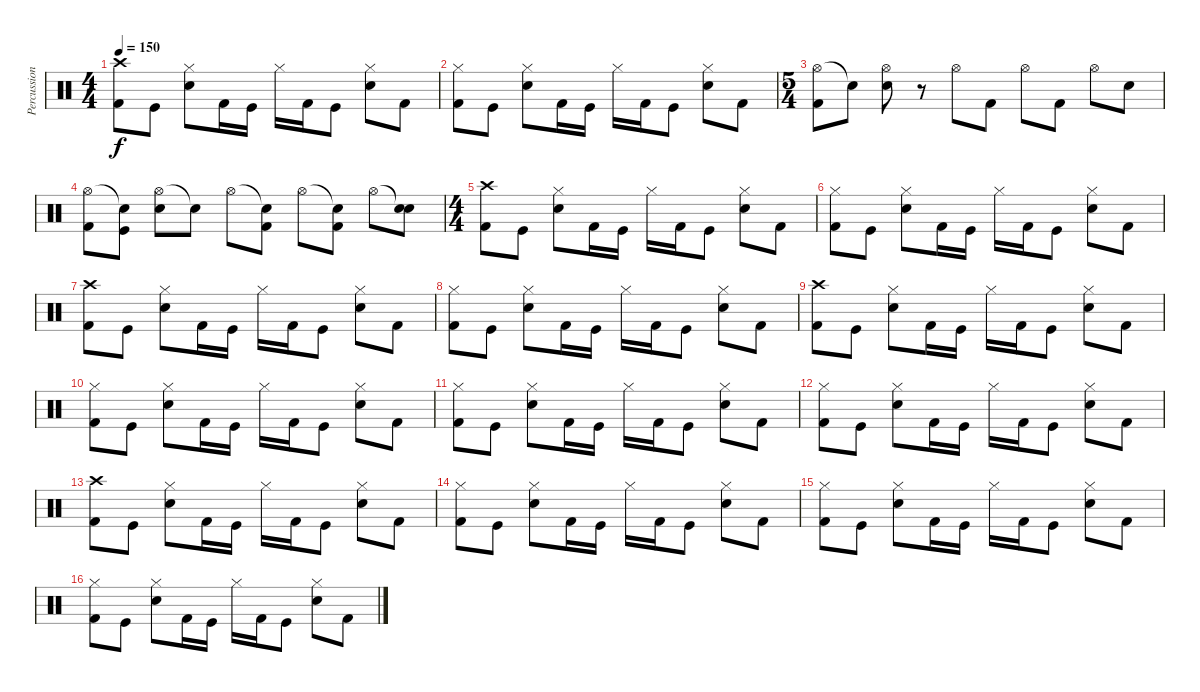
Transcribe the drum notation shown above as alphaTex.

\track ("Percussion" "Percussion") {instrument percussion}
\staff {score}
\articulation defaults
\ts (4 4)
\tempo 150
\clef neutral
\ks c
("Crash high (hit)" "Kick (hit) 2").8{dy f} "Kick (hit)".8 ("Hi-Hat (closed)" "Snare (hit) 2").8 "Kick (hit) 2".16 "Kick (hit)".16 "Hi-Hat (closed)".16 "Kick (hit) 2".16 "Kick (hit)".8 ("Hi-Hat (closed)" "Snare (hit) 2").8 "Kick (hit) 2".8 |
("Hi-Hat (closed)" "Kick (hit) 2").8 "Kick (hit)".8 ("Hi-Hat (closed)" "Snare (hit) 2").8 "Kick (hit) 2".16 "Kick (hit)".16 "Hi-Hat (closed)".16 "Kick (hit) 2".16 "Kick (hit)".8 ("Hi-Hat (closed)" "Snare (hit) 2").8 "Kick (hit) 2".8 |
\ts (5 4)
("Hi-Hat (open)" "Kick (hit) 2").8 "Snare (hit)"{t}.8 ("Hi-Hat (open)" "Snare (hit) 2").8 r.8 "Hi-Hat (open)".8 "Kick (hit) 2".8 "Hi-Hat (open)".8 "Kick (hit) 2".8 "Hi-Hat (open)".8 "Snare (hit) 2".8 |
("Hi-Hat (open)" "Kick (hit) 2").8 ("Snare (hit)"{t} "Kick (hit)").8 ("Hi-Hat (open)" "Snare (hit) 2").8 "Snare (hit)"{t}.8 "Hi-Hat (open)".8 ("Snare (hit)"{t} "Kick (hit) 2").8 "Hi-Hat (open)".8 ("Snare (hit)"{t} "Kick (hit) 2").8 "Hi-Hat (open)".8 ("Snare (hit)"{t} "Snare (hit) 2").8 |
\ts (4 4)
("Crash high (hit)" "Kick (hit) 2").8 "Kick (hit)".8 ("Hi-Hat (closed)" "Snare (hit) 2").8 "Kick (hit) 2".16 "Kick (hit)".16 "Hi-Hat (closed)".16 "Kick (hit) 2".16 "Kick (hit)".8 ("Hi-Hat (closed)" "Snare (hit) 2").8 "Kick (hit) 2".8 |
("Hi-Hat (closed)" "Kick (hit) 2").8 "Kick (hit)".8 ("Hi-Hat (closed)" "Snare (hit) 2").8 "Kick (hit) 2".16 "Kick (hit)".16 "Hi-Hat (closed)".16 "Kick (hit) 2".16 "Kick (hit)".8 ("Hi-Hat (closed)" "Snare (hit) 2").8 "Kick (hit) 2".8 |
("Crash high (hit)" "Kick (hit) 2").8 "Kick (hit)".8 ("Hi-Hat (closed)" "Snare (hit) 2").8 "Kick (hit) 2".16 "Kick (hit)".16 "Hi-Hat (closed)".16 "Kick (hit) 2".16 "Kick (hit)".8 ("Hi-Hat (closed)" "Snare (hit) 2").8 "Kick (hit) 2".8 |
("Hi-Hat (closed)" "Kick (hit) 2").8 "Kick (hit)".8 ("Hi-Hat (closed)" "Snare (hit) 2").8 "Kick (hit) 2".16 "Kick (hit)".16 "Hi-Hat (closed)".16 "Kick (hit) 2".16 "Kick (hit)".8 ("Hi-Hat (closed)" "Snare (hit) 2").8 "Kick (hit) 2".8 |
("Crash high (hit)" "Kick (hit) 2").8 "Kick (hit)".8 ("Hi-Hat (closed)" "Snare (hit) 2").8 "Kick (hit) 2".16 "Kick (hit)".16 "Hi-Hat (closed)".16 "Kick (hit) 2".16 "Kick (hit)".8 ("Hi-Hat (closed)" "Snare (hit) 2").8 "Kick (hit) 2".8 |
("Hi-Hat (closed)" "Kick (hit) 2").8 "Kick (hit)".8 ("Hi-Hat (closed)" "Snare (hit) 2").8 "Kick (hit) 2".16 "Kick (hit)".16 "Hi-Hat (closed)".16 "Kick (hit) 2".16 "Kick (hit)".8 ("Hi-Hat (closed)" "Snare (hit) 2").8 "Kick (hit) 2".8 |
("Hi-Hat (closed)" "Kick (hit) 2").8 "Kick (hit)".8 ("Hi-Hat (closed)" "Snare (hit) 2").8 "Kick (hit) 2".16 "Kick (hit)".16 "Hi-Hat (closed)".16 "Kick (hit) 2".16 "Kick (hit)".8 ("Hi-Hat (closed)" "Snare (hit) 2").8 "Kick (hit) 2".8 |
("Hi-Hat (closed)" "Kick (hit) 2").8 "Kick (hit)".8 ("Hi-Hat (closed)" "Snare (hit) 2").8 "Kick (hit) 2".16 "Kick (hit)".16 "Hi-Hat (closed)".16 "Kick (hit) 2".16 "Kick (hit)".8 ("Hi-Hat (closed)" "Snare (hit) 2").8 "Kick (hit) 2".8 |
("Crash high (hit)" "Kick (hit) 2").8 "Kick (hit)".8 ("Hi-Hat (closed)" "Snare (hit) 2").8 "Kick (hit) 2".16 "Kick (hit)".16 "Hi-Hat (closed)".16 "Kick (hit) 2".16 "Kick (hit)".8 ("Hi-Hat (closed)" "Snare (hit) 2").8 "Kick (hit) 2".8 |
("Hi-Hat (closed)" "Kick (hit) 2").8 "Kick (hit)".8 ("Hi-Hat (closed)" "Snare (hit) 2").8 "Kick (hit) 2".16 "Kick (hit)".16 "Hi-Hat (closed)".16 "Kick (hit) 2".16 "Kick (hit)".8 ("Hi-Hat (closed)" "Snare (hit) 2").8 "Kick (hit) 2".8 |
("Hi-Hat (closed)" "Kick (hit) 2").8 "Kick (hit)".8 ("Hi-Hat (closed)" "Snare (hit) 2").8 "Kick (hit) 2".16 "Kick (hit)".16 "Hi-Hat (closed)".16 "Kick (hit) 2".16 "Kick (hit)".8 ("Hi-Hat (closed)" "Snare (hit) 2").8 "Kick (hit) 2".8 |
("Hi-Hat (closed)" "Kick (hit) 2").8 "Kick (hit)".8 ("Hi-Hat (closed)" "Snare (hit) 2").8 "Kick (hit) 2".16 "Kick (hit)".16 "Hi-Hat (closed)".16 "Kick (hit) 2".16 "Kick (hit)".8 ("Hi-Hat (closed)" "Snare (hit) 2").8 "Kick (hit) 2".8
